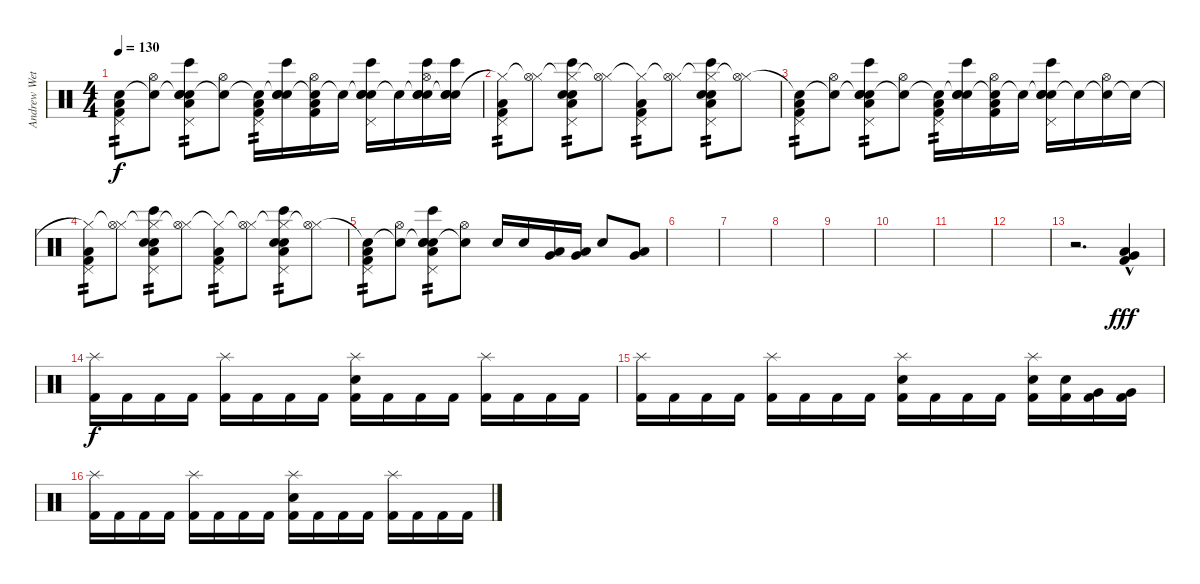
\track ("Andrew Wetzel" "Andrew Wet") {instrument percussion}
\staff {score}
\articulation defaults
\ts (4 4)
\tempo 130
\clef neutral
\ks c
("Snare (hit)"{t} "Pedal Hi-Hat (hit)" "Kick (hit) 2" "Low Floor Tom (hit)").8{tp 2 dy f} ("Snare (hit)"{t} "Hi-Hat (open)").8 ("Snare (hit)"{t} "Electric Snare (hit)" "Pedal Hi-Hat (hit)" "Bongo High (hit)" "Hand Clap (hit)" "Low Floor Tom (hit)").8{tp 2} ("Snare (hit)"{t} "Hi-Hat (open)").8 ("Snare (hit)"{t} "Pedal Hi-Hat (hit)" "Kick (hit) 2" "Low Floor Tom (hit)").16{tp 2} ("Snare (hit)"{t} "Electric Snare (hit)" "Bongo High (hit)" "Hand Clap (hit)").16 ("Snare (hit)"{t} "Hi-Hat (open)" "Low Floor Tom (hit)" "Kick (hit) 2").16 "Snare (hit)"{t}.16 ("Snare (hit)"{t} "Electric Snare (hit)" "Pedal Hi-Hat (hit)" "Bongo High (hit)" "Hand Clap (hit)").16 "Snare (hit)"{t}.16 ("Snare (hit)"{t} "Electric Snare (hit)" "Hi-Hat (open)" "Bongo High (hit)" "Hand Clap (hit)").16 ("Snare (hit)"{t} "Electric Snare (hit)" "Bongo High (hit)" "Hand Clap (hit)").16 |
("Hi-Hat (closed)"{t} "Pedal Hi-Hat (hit)" "Kick (hit) 2" "Low Floor Tom (hit)").8{tp 2} ("Hi-Hat (closed)"{t} "Hi-Hat (open)").8 ("Hi-Hat (closed)"{t} "Electric Snare (hit)" "Pedal Hi-Hat (hit)" "Bongo High (hit)" "Hand Clap (hit)" "Low Floor Tom (hit)").8{tp 2} ("Hi-Hat (closed)"{t} "Hi-Hat (open)").8 ("Hi-Hat (closed)"{t} "Pedal Hi-Hat (hit)" "Kick (hit) 2" "Low Floor Tom (hit)").8{tp 2} ("Hi-Hat (closed)"{t} "Hi-Hat (open)").8 ("Hi-Hat (closed)"{t} "Electric Snare (hit)" "Pedal Hi-Hat (hit)" "Bongo High (hit)" "Hand Clap (hit)" "Low Floor Tom (hit)").8{tp 2} ("Hi-Hat (closed)"{t} "Hi-Hat (open)").8 |
("Snare (hit)"{t} "Pedal Hi-Hat (hit)" "Kick (hit) 2" "Low Floor Tom (hit)").8{tp 2} ("Snare (hit)"{t} "Hi-Hat (open)").8 ("Snare (hit)"{t} "Electric Snare (hit)" "Pedal Hi-Hat (hit)" "Bongo High (hit)" "Hand Clap (hit)" "Low Floor Tom (hit)").8{tp 2} ("Snare (hit)"{t} "Hi-Hat (open)").8 ("Snare (hit)"{t} "Pedal Hi-Hat (hit)" "Kick (hit) 2" "Low Floor Tom (hit)").16{tp 2} ("Snare (hit)"{t} "Electric Snare (hit)" "Bongo High (hit)" "Hand Clap (hit)").16 ("Snare (hit)"{t} "Hi-Hat (open)" "Low Floor Tom (hit)" "Kick (hit) 2").16 "Snare (hit)"{t}.16 ("Snare (hit)"{t} "Electric Snare (hit)" "Pedal Hi-Hat (hit)" "Bongo High (hit)" "Hand Clap (hit)").16 "Snare (hit)"{t}.16 ("Snare (hit)"{t} "Hi-Hat (open)").16 "Snare (hit)"{t}.16 |
("Hi-Hat (closed)"{t} "Pedal Hi-Hat (hit)" "Kick (hit) 2" "Low Floor Tom (hit)").8{tp 2} ("Hi-Hat (closed)"{t} "Hi-Hat (open)").8 ("Hi-Hat (closed)"{t} "Electric Snare (hit)" "Pedal Hi-Hat (hit)" "Bongo High (hit)" "Hand Clap (hit)" "Low Floor Tom (hit)").8{tp 2} ("Hi-Hat (closed)"{t} "Hi-Hat (open)").8 ("Hi-Hat (closed)"{t} "Pedal Hi-Hat (hit)" "Kick (hit) 2" "Low Floor Tom (hit)").8{tp 2} ("Hi-Hat (closed)"{t} "Hi-Hat (open)").8 ("Hi-Hat (closed)"{t} "Electric Snare (hit)" "Pedal Hi-Hat (hit)" "Bongo High (hit)" "Hand Clap (hit)" "Low Floor Tom (hit)").8{tp 2} ("Hi-Hat (closed)"{t} "Hi-Hat (open)").8 |
("Snare (hit)"{t} "Pedal Hi-Hat (hit)" "Kick (hit) 2" "Low Floor Tom (hit)").8{tp 2} ("Snare (hit)"{t} "Hi-Hat (open)").8 ("Snare (hit)"{t} "Electric Snare (hit)" "Pedal Hi-Hat (hit)" "Bongo High (hit)" "Hand Clap (hit)" "Low Floor Tom (hit)").8{tp 2} ("Snare (hit)"{t} "Hi-Hat (open)").8 "Electric Snare (hit)".16 "Electric Snare (hit)".16 ("Low Tom (hit)" "Very Low Tom (hit)").16 ("Low Tom (hit)" "Very Low Tom (hit)").16 "Electric Snare (hit)".8 ("Low Floor Tom (hit)" "Very Low Tom (hit)").8 |
|
|
|
|
|
|
|
r.2{d} ("Very Low Tom (hit)"{hac} "Low Floor Tom (hit)"{hac} "Kick (hit) 2"{hac}).4{dy fff} |
("Splash (hit)" "Kick (hit) 2").16{dy f} "Kick (hit) 2".16 "Kick (hit) 2".16 "Kick (hit) 2".16 ("Splash (hit)" "Kick (hit) 2").16 "Kick (hit) 2".16 "Kick (hit) 2".16 "Kick (hit) 2".16 ("Splash (hit)" "Electric Snare (hit)" "Kick (hit) 2").16 "Kick (hit) 2".16 "Kick (hit) 2".16 "Kick (hit) 2".16 ("Splash (hit)" "Kick (hit) 2").16 "Kick (hit) 2".16 "Kick (hit) 2".16 "Kick (hit) 2".16 |
("Splash (hit)" "Kick (hit) 2").16 "Kick (hit) 2".16 "Kick (hit) 2".16 "Kick (hit) 2".16 ("Splash (hit)" "Kick (hit) 2").16 "Kick (hit) 2".16 "Kick (hit) 2".16 "Kick (hit) 2".16 ("Splash (hit)" "Electric Snare (hit)" "Kick (hit) 2").16 "Kick (hit) 2".16 "Kick (hit) 2".16 "Kick (hit) 2".16 ("Splash (hit)" "Electric Snare (hit)" "Kick (hit) 2").16 ("Electric Snare (hit)" "Kick (hit) 2").16 ("Very Low Tom (hit)" "Kick (hit) 2").16 ("Very Low Tom (hit)" "Kick (hit) 2").16 |
("Splash (hit)" "Kick (hit) 2").16 "Kick (hit) 2".16 "Kick (hit) 2".16 "Kick (hit) 2".16 ("Splash (hit)" "Kick (hit) 2").16 "Kick (hit) 2".16 "Kick (hit) 2".16 "Kick (hit) 2".16 ("Splash (hit)" "Electric Snare (hit)" "Kick (hit) 2").16 "Kick (hit) 2".16 "Kick (hit) 2".16 "Kick (hit) 2".16 ("Splash (hit)" "Kick (hit) 2").16 "Kick (hit) 2".16 "Kick (hit) 2".16 "Kick (hit) 2".16
